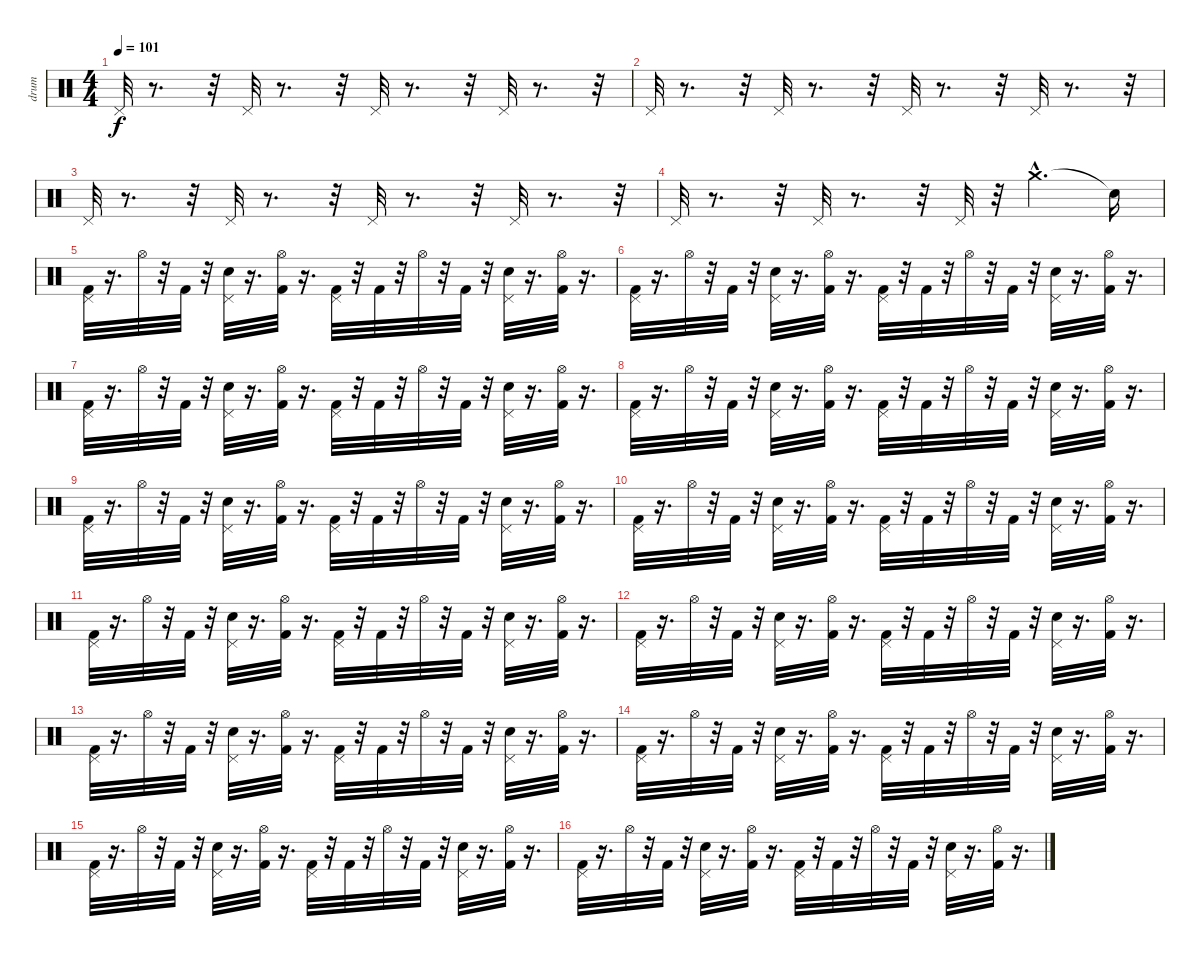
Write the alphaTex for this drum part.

\track ("drum" "drum") {instrument percussion}
\staff {score}
\articulation defaults
\ts (4 4)
\tempo 101
\clef neutral
\ks c "Pedal Hi-Hat (hit)".32{dy f}
r.8{d} r.32 "Pedal Hi-Hat (hit)".32 r.8{d} r.32 "Pedal Hi-Hat (hit)".32 r.8{d} r.32 "Pedal Hi-Hat (hit)".32 r.8{d} r.32 |
"Pedal Hi-Hat (hit)".32 r.8{d} r.32 "Pedal Hi-Hat (hit)".32 r.8{d} r.32 "Pedal Hi-Hat (hit)".32 r.8{d} r.32 "Pedal Hi-Hat (hit)".32 r.8{d} r.32 |
"Pedal Hi-Hat (hit)".32 r.8{d} r.32 "Pedal Hi-Hat (hit)".32 r.8{d} r.32 "Pedal Hi-Hat (hit)".32 r.8{d} r.32 "Pedal Hi-Hat (hit)".32 r.8{d} r.32 |
"Pedal Hi-Hat (hit)".32 r.8{d} r.32 "Pedal Hi-Hat (hit)".32 r.8{d} r.32 "Pedal Hi-Hat (hit)".32 r.32 "Crash medium (hit)"{hac}.4{d} "Snare (hit)"{t}.16 |
("Kick (hit) 2" "Pedal Hi-Hat (hit)").32 r.16{d} "Hi-Hat (open)".32 r.32 "Kick (hit) 2".32 r.32 ("Electric Snare (hit)" "Pedal Hi-Hat (hit)").32 r.16{d} ("Kick (hit) 2" "Hi-Hat (open)").32 r.16{d} ("Kick (hit) 2" "Pedal Hi-Hat (hit)").32 r.32 "Kick (hit) 2".32 r.32 "Hi-Hat (open)".32 r.32 "Kick (hit) 2".32 r.32 ("Electric Snare (hit)" "Pedal Hi-Hat (hit)").32 r.16{d} ("Kick (hit) 2" "Hi-Hat (open)").32 r.16{d} |
("Kick (hit) 2" "Pedal Hi-Hat (hit)").32 r.16{d} "Hi-Hat (open)".32 r.32 "Kick (hit) 2".32 r.32 ("Electric Snare (hit)" "Pedal Hi-Hat (hit)").32 r.16{d} ("Kick (hit) 2" "Hi-Hat (open)").32 r.16{d} ("Kick (hit) 2" "Pedal Hi-Hat (hit)").32 r.32 "Kick (hit) 2".32 r.32 "Hi-Hat (open)".32 r.32 "Kick (hit) 2".32 r.32 ("Electric Snare (hit)" "Pedal Hi-Hat (hit)").32 r.16{d} ("Kick (hit) 2" "Hi-Hat (open)").32 r.16{d} |
("Kick (hit) 2" "Pedal Hi-Hat (hit)").32 r.16{d} "Hi-Hat (open)".32 r.32 "Kick (hit) 2".32 r.32 ("Electric Snare (hit)" "Pedal Hi-Hat (hit)").32 r.16{d} ("Kick (hit) 2" "Hi-Hat (open)").32 r.16{d} ("Kick (hit) 2" "Pedal Hi-Hat (hit)").32 r.32 "Kick (hit) 2".32 r.32 "Hi-Hat (open)".32 r.32 "Kick (hit) 2".32 r.32 ("Electric Snare (hit)" "Pedal Hi-Hat (hit)").32 r.16{d} ("Kick (hit) 2" "Hi-Hat (open)").32 r.16{d} |
("Kick (hit) 2" "Pedal Hi-Hat (hit)").32 r.16{d} "Hi-Hat (open)".32 r.32 "Kick (hit) 2".32 r.32 ("Electric Snare (hit)" "Pedal Hi-Hat (hit)").32 r.16{d} ("Kick (hit) 2" "Hi-Hat (open)").32 r.16{d} ("Kick (hit) 2" "Pedal Hi-Hat (hit)").32 r.32 "Kick (hit) 2".32 r.32 "Hi-Hat (open)".32 r.32 "Kick (hit) 2".32 r.32 ("Electric Snare (hit)" "Pedal Hi-Hat (hit)").32 r.16{d} ("Kick (hit) 2" "Hi-Hat (open)").32 r.16{d} |
("Kick (hit) 2" "Pedal Hi-Hat (hit)").32 r.16{d} "Hi-Hat (open)".32 r.32 "Kick (hit) 2".32 r.32 ("Electric Snare (hit)" "Pedal Hi-Hat (hit)").32 r.16{d} ("Kick (hit) 2" "Hi-Hat (open)").32 r.16{d} ("Kick (hit) 2" "Pedal Hi-Hat (hit)").32 r.32 "Kick (hit) 2".32 r.32 "Hi-Hat (open)".32 r.32 "Kick (hit) 2".32 r.32 ("Electric Snare (hit)" "Pedal Hi-Hat (hit)").32 r.16{d} ("Kick (hit) 2" "Hi-Hat (open)").32 r.16{d} |
("Kick (hit) 2" "Pedal Hi-Hat (hit)").32 r.16{d} "Hi-Hat (open)".32 r.32 "Kick (hit) 2".32 r.32 ("Electric Snare (hit)" "Pedal Hi-Hat (hit)").32 r.16{d} ("Kick (hit) 2" "Hi-Hat (open)").32 r.16{d} ("Kick (hit) 2" "Pedal Hi-Hat (hit)").32 r.32 "Kick (hit) 2".32 r.32 "Hi-Hat (open)".32 r.32 "Kick (hit) 2".32 r.32 ("Electric Snare (hit)" "Pedal Hi-Hat (hit)").32 r.16{d} ("Kick (hit) 2" "Hi-Hat (open)").32 r.16{d} |
("Kick (hit) 2" "Pedal Hi-Hat (hit)").32 r.16{d} "Hi-Hat (open)".32 r.32 "Kick (hit) 2".32 r.32 ("Electric Snare (hit)" "Pedal Hi-Hat (hit)").32 r.16{d} ("Kick (hit) 2" "Hi-Hat (open)").32 r.16{d} ("Kick (hit) 2" "Pedal Hi-Hat (hit)").32 r.32 "Kick (hit) 2".32 r.32 "Hi-Hat (open)".32 r.32 "Kick (hit) 2".32 r.32 ("Electric Snare (hit)" "Pedal Hi-Hat (hit)").32 r.16{d} ("Kick (hit) 2" "Hi-Hat (open)").32 r.16{d} |
("Kick (hit) 2" "Pedal Hi-Hat (hit)").32 r.16{d} "Hi-Hat (open)".32 r.32 "Kick (hit) 2".32 r.32 ("Electric Snare (hit)" "Pedal Hi-Hat (hit)").32 r.16{d} ("Kick (hit) 2" "Hi-Hat (open)").32 r.16{d} ("Kick (hit) 2" "Pedal Hi-Hat (hit)").32 r.32 "Kick (hit) 2".32 r.32 "Hi-Hat (open)".32 r.32 "Kick (hit) 2".32 r.32 ("Electric Snare (hit)" "Pedal Hi-Hat (hit)").32 r.16{d} ("Kick (hit) 2" "Hi-Hat (open)").32 r.16{d} |
("Kick (hit) 2" "Pedal Hi-Hat (hit)").32 r.16{d} "Hi-Hat (open)".32 r.32 "Kick (hit) 2".32 r.32 ("Electric Snare (hit)" "Pedal Hi-Hat (hit)").32 r.16{d} ("Kick (hit) 2" "Hi-Hat (open)").32 r.16{d} ("Kick (hit) 2" "Pedal Hi-Hat (hit)").32 r.32 "Kick (hit) 2".32 r.32 "Hi-Hat (open)".32 r.32 "Kick (hit) 2".32 r.32 ("Electric Snare (hit)" "Pedal Hi-Hat (hit)").32 r.16{d} ("Kick (hit) 2" "Hi-Hat (open)").32 r.16{d} |
("Kick (hit) 2" "Pedal Hi-Hat (hit)").32 r.16{d} "Hi-Hat (open)".32 r.32 "Kick (hit) 2".32 r.32 ("Electric Snare (hit)" "Pedal Hi-Hat (hit)").32 r.16{d} ("Kick (hit) 2" "Hi-Hat (open)").32 r.16{d} ("Kick (hit) 2" "Pedal Hi-Hat (hit)").32 r.32 "Kick (hit) 2".32 r.32 "Hi-Hat (open)".32 r.32 "Kick (hit) 2".32 r.32 ("Electric Snare (hit)" "Pedal Hi-Hat (hit)").32 r.16{d} ("Kick (hit) 2" "Hi-Hat (open)").32 r.16{d} |
("Kick (hit) 2" "Pedal Hi-Hat (hit)").32 r.16{d} "Hi-Hat (open)".32 r.32 "Kick (hit) 2".32 r.32 ("Electric Snare (hit)" "Pedal Hi-Hat (hit)").32 r.16{d} ("Kick (hit) 2" "Hi-Hat (open)").32 r.16{d} ("Kick (hit) 2" "Pedal Hi-Hat (hit)").32 r.32 "Kick (hit) 2".32 r.32 "Hi-Hat (open)".32 r.32 "Kick (hit) 2".32 r.32 ("Electric Snare (hit)" "Pedal Hi-Hat (hit)").32 r.16{d} ("Kick (hit) 2" "Hi-Hat (open)").32 r.16{d} |
("Kick (hit) 2" "Pedal Hi-Hat (hit)").32 r.16{d} "Hi-Hat (open)".32 r.32 "Kick (hit) 2".32 r.32 ("Electric Snare (hit)" "Pedal Hi-Hat (hit)").32 r.16{d} ("Kick (hit) 2" "Hi-Hat (open)").32 r.16{d} ("Kick (hit) 2" "Pedal Hi-Hat (hit)").32 r.32 "Kick (hit) 2".32 r.32 "Hi-Hat (open)".32 r.32 "Kick (hit) 2".32 r.32 ("Electric Snare (hit)" "Pedal Hi-Hat (hit)").32 r.16{d} ("Kick (hit) 2" "Hi-Hat (open)").32 r.16{d}
